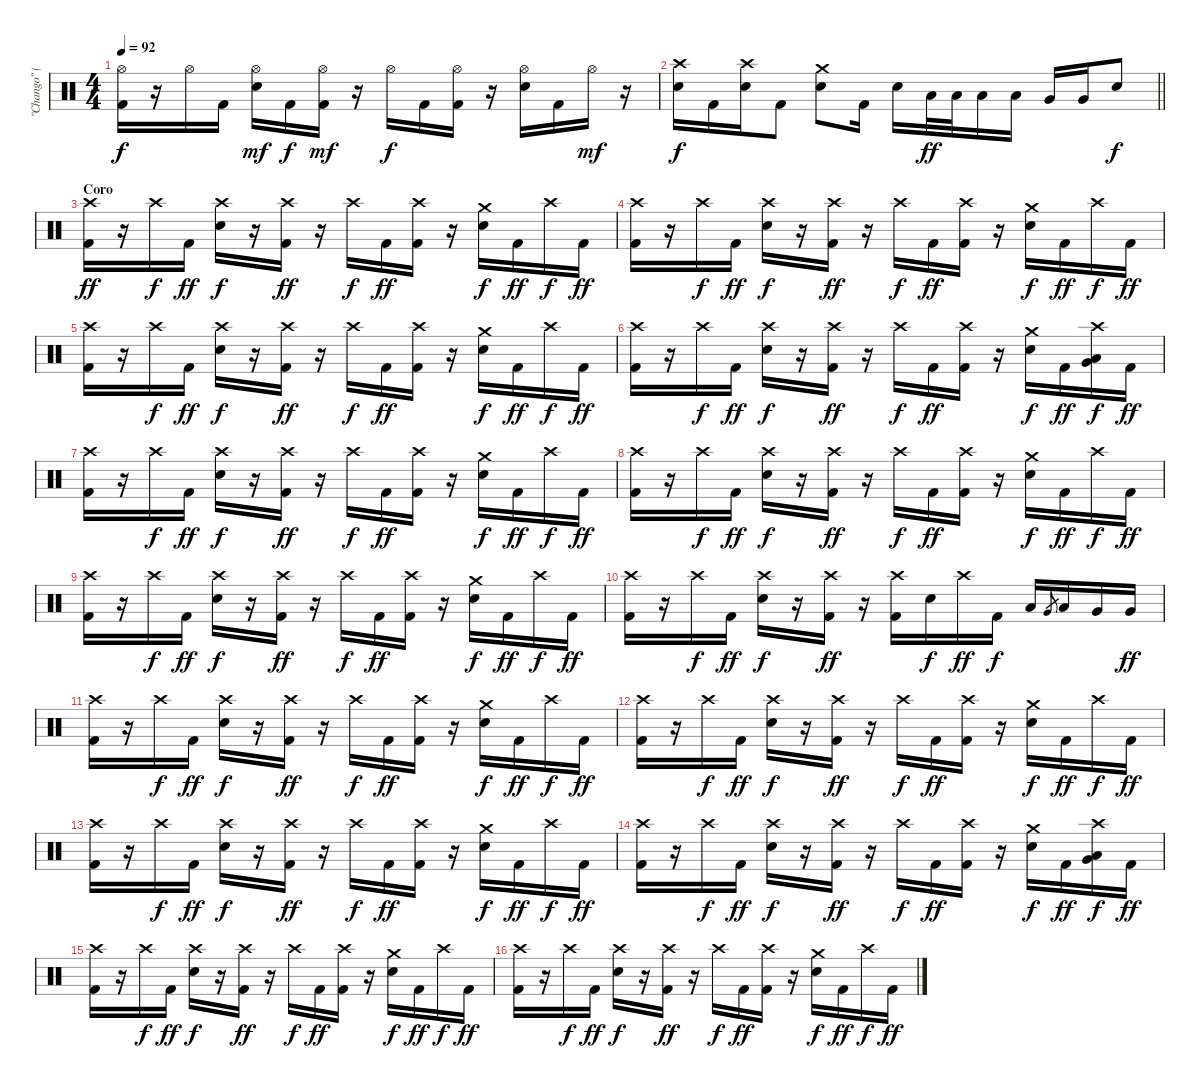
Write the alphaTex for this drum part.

\track ("\"Chango\" (Bateria)" "\"Chango\" (") {instrument percussion}
\staff {score}
\articulation defaults
\ts (4 4)
\tempo 92
\clef neutral
\ks c
("Hi-Hat (open)" "Kick (hit) 2").16{dy f} r.16 "Hi-Hat (open)".16 "Kick (hit) 2".16 ("Hi-Hat (open)" "Electric Snare (hit)").16{dy mf} "Kick (hit) 2".16{dy f} ("Hi-Hat (open)" "Kick (hit) 2").16{dy mf} r.16 "Hi-Hat (open)".16{dy f} "Kick (hit) 2".16 ("Hi-Hat (open)" "Kick (hit) 2").16 r.16 ("Hi-Hat (open)" "Electric Snare (hit)").16 "Kick (hit) 2".16 "Hi-Hat (open)".16{dy mf} r.16 |
\barLineRight lightlight
("Crash high (hit)" "Electric Snare (hit)").16{dy f} "Kick (hit) 2".16 ("Crash high (hit)" "Electric Snare (hit)").16 "Kick (hit) 2".8 ("Crash medium (hit)" "Electric Snare (hit)").8 "Kick (hit) 2".16 "Electric Snare (hit)".16 "Low Tom (hit)".32{dy ff} "Low Tom (hit)".32 "Low Tom (hit)".16 "Low Tom (hit)".16 "Very Low Tom (hit)".16 "Very Low Tom (hit)".16 "Electric Snare (hit)".8{dy f} |
\section ("" "Coro")
("Crash high (hit)" "Kick (hit) 2").16{dy ff} r.16 "Crash high (hit)".16{dy f} "Kick (hit) 2".16{dy ff} ("Crash high (hit)" "Electric Snare (hit)").16{dy f} r.16 ("Crash high (hit)" "Kick (hit) 2").16{dy ff} r.16 "Crash high (hit)".16{dy f} "Kick (hit) 2".16{dy ff} ("Crash high (hit)" "Kick (hit) 2").16 r.16 ("Crash medium (hit)" "Electric Snare (hit)").16{dy f} "Kick (hit) 2".16{dy ff} "Crash high (hit)".16{dy f} "Kick (hit) 2".16{dy ff} |
("Crash high (hit)" "Kick (hit) 2").16 r.16 "Crash high (hit)".16{dy f} "Kick (hit) 2".16{dy ff} ("Crash high (hit)" "Electric Snare (hit)").16{dy f} r.16 ("Crash high (hit)" "Kick (hit) 2").16{dy ff} r.16 "Crash high (hit)".16{dy f} "Kick (hit) 2".16{dy ff} ("Crash high (hit)" "Kick (hit) 2").16 r.16 ("Crash medium (hit)" "Electric Snare (hit)").16{dy f} "Kick (hit) 2".16{dy ff} "Crash high (hit)".16{dy f} "Kick (hit) 2".16{dy ff} |
("Crash high (hit)" "Kick (hit) 2").16 r.16 "Crash high (hit)".16{dy f} "Kick (hit) 2".16{dy ff} ("Crash high (hit)" "Electric Snare (hit)").16{dy f} r.16 ("Crash high (hit)" "Kick (hit) 2").16{dy ff} r.16 "Crash high (hit)".16{dy f} "Kick (hit) 2".16{dy ff} ("Crash high (hit)" "Kick (hit) 2").16 r.16 ("Crash medium (hit)" "Electric Snare (hit)").16{dy f} "Kick (hit) 2".16{dy ff} "Crash high (hit)".16{dy f} "Kick (hit) 2".16{dy ff} |
("Crash high (hit)" "Kick (hit) 2").16 r.16 "Crash high (hit)".16{dy f} "Kick (hit) 2".16{dy ff} ("Crash high (hit)" "Electric Snare (hit)").16{dy f} r.16 ("Crash high (hit)" "Kick (hit) 2").16{dy ff} r.16 "Crash high (hit)".16{dy f} "Kick (hit) 2".16{dy ff} ("Crash high (hit)" "Kick (hit) 2").16 r.16 ("Crash medium (hit)" "Electric Snare (hit)").16{dy f} "Kick (hit) 2".16{dy ff} ("Crash high (hit)" "Very Low Tom (hit)" "Low Floor Tom (hit)").16{dy f} "Kick (hit) 2".16{dy ff} |
("Crash high (hit)" "Kick (hit) 2").16 r.16 "Crash high (hit)".16{dy f} "Kick (hit) 2".16{dy ff} ("Crash high (hit)" "Electric Snare (hit)").16{dy f} r.16 ("Crash high (hit)" "Kick (hit) 2").16{dy ff} r.16 "Crash high (hit)".16{dy f} "Kick (hit) 2".16{dy ff} ("Crash high (hit)" "Kick (hit) 2").16 r.16 ("Crash medium (hit)" "Electric Snare (hit)").16{dy f} "Kick (hit) 2".16{dy ff} "Crash high (hit)".16{dy f} "Kick (hit) 2".16{dy ff} |
("Crash high (hit)" "Kick (hit) 2").16 r.16 "Crash high (hit)".16{dy f} "Kick (hit) 2".16{dy ff} ("Crash high (hit)" "Electric Snare (hit)").16{dy f} r.16 ("Crash high (hit)" "Kick (hit) 2").16{dy ff} r.16 "Crash high (hit)".16{dy f} "Kick (hit) 2".16{dy ff} ("Crash high (hit)" "Kick (hit) 2").16 r.16 ("Crash medium (hit)" "Electric Snare (hit)").16{dy f} "Kick (hit) 2".16{dy ff} "Crash high (hit)".16{dy f} "Kick (hit) 2".16{dy ff} |
("Crash high (hit)" "Kick (hit) 2").16 r.16 "Crash high (hit)".16{dy f} "Kick (hit) 2".16{dy ff} ("Crash high (hit)" "Electric Snare (hit)").16{dy f} r.16 ("Crash high (hit)" "Kick (hit) 2").16{dy ff} r.16 "Crash high (hit)".16{dy f} "Kick (hit) 2".16{dy ff} ("Crash high (hit)" "Kick (hit) 2").16 r.16 ("Crash medium (hit)" "Electric Snare (hit)").16{dy f} "Kick (hit) 2".16{dy ff} "Crash high (hit)".16{dy f} "Kick (hit) 2".16{dy ff} |
("Crash high (hit)" "Kick (hit) 2").16 r.16 "Crash high (hit)".16{dy f} "Kick (hit) 2".16{dy ff} ("Crash high (hit)" "Electric Snare (hit)").16{dy f} r.16 ("Crash high (hit)" "Kick (hit) 2").16{dy ff} r.16 ("Crash high (hit)" "Kick (hit) 2").16 "Electric Snare (hit)".16{dy f} "Crash high (hit)".16{dy ff} "Kick (hit) 2".16{dy f} "Low Tom (hit)".16 "Very Low Tom (hit)".8{gr} "Low Tom (hit)".16 "Very Low Tom (hit)".16 "Very Low Tom (hit)".16{dy ff} |
("Crash high (hit)" "Kick (hit) 2").16 r.16 "Crash high (hit)".16{dy f} "Kick (hit) 2".16{dy ff} ("Crash high (hit)" "Electric Snare (hit)").16{dy f} r.16 ("Crash high (hit)" "Kick (hit) 2").16{dy ff} r.16 "Crash high (hit)".16{dy f} "Kick (hit) 2".16{dy ff} ("Crash high (hit)" "Kick (hit) 2").16 r.16 ("Crash medium (hit)" "Electric Snare (hit)").16{dy f} "Kick (hit) 2".16{dy ff} "Crash high (hit)".16{dy f} "Kick (hit) 2".16{dy ff} |
("Crash high (hit)" "Kick (hit) 2").16 r.16 "Crash high (hit)".16{dy f} "Kick (hit) 2".16{dy ff} ("Crash high (hit)" "Electric Snare (hit)").16{dy f} r.16 ("Crash high (hit)" "Kick (hit) 2").16{dy ff} r.16 "Crash high (hit)".16{dy f} "Kick (hit) 2".16{dy ff} ("Crash high (hit)" "Kick (hit) 2").16 r.16 ("Crash medium (hit)" "Electric Snare (hit)").16{dy f} "Kick (hit) 2".16{dy ff} "Crash high (hit)".16{dy f} "Kick (hit) 2".16{dy ff} |
("Crash high (hit)" "Kick (hit) 2").16 r.16 "Crash high (hit)".16{dy f} "Kick (hit) 2".16{dy ff} ("Crash high (hit)" "Electric Snare (hit)").16{dy f} r.16 ("Crash high (hit)" "Kick (hit) 2").16{dy ff} r.16 "Crash high (hit)".16{dy f} "Kick (hit) 2".16{dy ff} ("Crash high (hit)" "Kick (hit) 2").16 r.16 ("Crash medium (hit)" "Electric Snare (hit)").16{dy f} "Kick (hit) 2".16{dy ff} "Crash high (hit)".16{dy f} "Kick (hit) 2".16{dy ff} |
("Crash high (hit)" "Kick (hit) 2").16 r.16 "Crash high (hit)".16{dy f} "Kick (hit) 2".16{dy ff} ("Crash high (hit)" "Electric Snare (hit)").16{dy f} r.16 ("Crash high (hit)" "Kick (hit) 2").16{dy ff} r.16 "Crash high (hit)".16{dy f} "Kick (hit) 2".16{dy ff} ("Crash high (hit)" "Kick (hit) 2").16 r.16 ("Crash medium (hit)" "Electric Snare (hit)").16{dy f} "Kick (hit) 2".16{dy ff} ("Crash high (hit)" "Very Low Tom (hit)" "Low Floor Tom (hit)").16{dy f} "Kick (hit) 2".16{dy ff} |
("Crash high (hit)" "Kick (hit) 2").16 r.16 "Crash high (hit)".16{dy f} "Kick (hit) 2".16{dy ff} ("Crash high (hit)" "Electric Snare (hit)").16{dy f} r.16 ("Crash high (hit)" "Kick (hit) 2").16{dy ff} r.16 "Crash high (hit)".16{dy f} "Kick (hit) 2".16{dy ff} ("Crash high (hit)" "Kick (hit) 2").16 r.16 ("Crash medium (hit)" "Electric Snare (hit)").16{dy f} "Kick (hit) 2".16{dy ff} "Crash high (hit)".16{dy f} "Kick (hit) 2".16{dy ff} |
("Crash high (hit)" "Kick (hit) 2").16 r.16 "Crash high (hit)".16{dy f} "Kick (hit) 2".16{dy ff} ("Crash high (hit)" "Electric Snare (hit)").16{dy f} r.16 ("Crash high (hit)" "Kick (hit) 2").16{dy ff} r.16 "Crash high (hit)".16{dy f} "Kick (hit) 2".16{dy ff} ("Crash high (hit)" "Kick (hit) 2").16 r.16 ("Crash medium (hit)" "Electric Snare (hit)").16{dy f} "Kick (hit) 2".16{dy ff} "Crash high (hit)".16{dy f} "Kick (hit) 2".16{dy ff}
